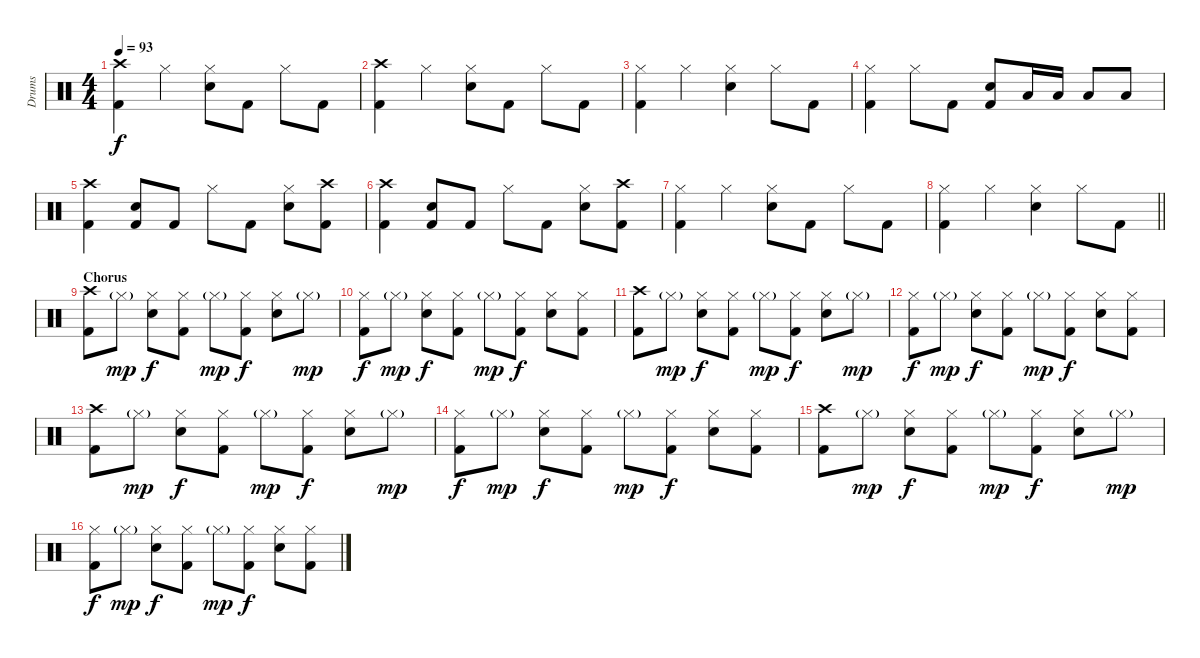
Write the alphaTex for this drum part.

\track ("Drums" "Drums") {instrument percussion}
\staff {score}
\articulation defaults
\ts (4 4)
\tempo 93
\clef neutral
\ks c
("Crash high (hit)" "Kick (hit) 2").4{dy f} "Hi-Hat (closed)".4 ("Hi-Hat (closed)" "Snare (hit) 2").8 "Kick (hit) 2".8 "Hi-Hat (closed)".8 "Kick (hit) 2".8 |
("Crash high (hit)" "Kick (hit) 2").4 "Hi-Hat (closed)".4 ("Hi-Hat (closed)" "Snare (hit) 2").8 "Kick (hit) 2".8 "Hi-Hat (closed)".8 "Kick (hit) 2".8 |
("Hi-Hat (closed)" "Kick (hit) 2").4 "Hi-Hat (closed)".4 ("Hi-Hat (closed)" "Snare (hit) 2").4 "Hi-Hat (closed)".8 "Kick (hit) 2".8 |
("Hi-Hat (closed)" "Kick (hit) 2").4 "Hi-Hat (closed)".8 "Kick (hit) 2".8 ("Kick (hit) 2" "Snare (hit) 2").8 "Low Tom (hit)".16 "Low Tom (hit)".16 "Low Tom (hit)".8 "Low Tom (hit)".8 |
("Crash high (hit)" "Kick (hit) 2").4 ("Kick (hit) 2" "Snare (hit) 2").8 "Kick (hit) 2".8 "Hi-Hat (closed)".8 "Kick (hit) 2".8 ("Hi-Hat (closed)" "Snare (hit) 2").8 ("Crash high (hit)" "Kick (hit) 2").8 |
("Crash high (hit)" "Kick (hit) 2").4 ("Kick (hit) 2" "Snare (hit) 2").8 "Kick (hit) 2".8 "Hi-Hat (closed)".8 "Kick (hit) 2".8 ("Hi-Hat (closed)" "Snare (hit) 2").8 ("Crash high (hit)" "Kick (hit) 2").8 |
("Hi-Hat (closed)" "Kick (hit) 2").4 "Hi-Hat (closed)".4 ("Hi-Hat (closed)" "Snare (hit) 2").8 "Kick (hit) 2".8 "Hi-Hat (closed)".8 "Kick (hit) 2".8 |
\barLineRight lightlight
("Hi-Hat (closed)" "Kick (hit) 2").4 "Hi-Hat (closed)".4 ("Hi-Hat (closed)" "Snare (hit) 2").4 "Hi-Hat (closed)".8 "Kick (hit) 2".8 |
\section ("" "Chorus")
("Crash high (hit)" "Kick (hit) 2").8 "Hi-Hat (closed)"{g}.8{dy mp} ("Hi-Hat (closed)" "Snare (hit) 2").8{dy f} ("Hi-Hat (closed)" "Kick (hit) 2").8 "Hi-Hat (closed)"{g}.8{dy mp} ("Hi-Hat (closed)" "Kick (hit) 2").8{dy f} ("Hi-Hat (closed)" "Snare (hit) 2").8 "Hi-Hat (closed)"{g}.8{dy mp} |
("Hi-Hat (closed)" "Kick (hit) 2").8{dy f} "Hi-Hat (closed)"{g}.8{dy mp} ("Hi-Hat (closed)" "Snare (hit) 2").8{dy f} ("Hi-Hat (closed)" "Kick (hit) 2").8 "Hi-Hat (closed)"{g}.8{dy mp} ("Hi-Hat (closed)" "Kick (hit) 2").8{dy f} ("Hi-Hat (closed)" "Snare (hit) 2").8 ("Hi-Hat (closed)" "Kick (hit) 2").8 |
("Crash high (hit)" "Kick (hit) 2").8 "Hi-Hat (closed)"{g}.8{dy mp} ("Hi-Hat (closed)" "Snare (hit) 2").8{dy f} ("Hi-Hat (closed)" "Kick (hit) 2").8 "Hi-Hat (closed)"{g}.8{dy mp} ("Hi-Hat (closed)" "Kick (hit) 2").8{dy f} ("Hi-Hat (closed)" "Snare (hit) 2").8 "Hi-Hat (closed)"{g}.8{dy mp} |
("Hi-Hat (closed)" "Kick (hit) 2").8{dy f} "Hi-Hat (closed)"{g}.8{dy mp} ("Hi-Hat (closed)" "Snare (hit) 2").8{dy f} ("Hi-Hat (closed)" "Kick (hit) 2").8 "Hi-Hat (closed)"{g}.8{dy mp} ("Hi-Hat (closed)" "Kick (hit) 2").8{dy f} ("Hi-Hat (closed)" "Snare (hit) 2").8 ("Hi-Hat (closed)" "Kick (hit) 2").8 |
("Crash high (hit)" "Kick (hit) 2").8 "Hi-Hat (closed)"{g}.8{dy mp} ("Hi-Hat (closed)" "Snare (hit) 2").8{dy f} ("Hi-Hat (closed)" "Kick (hit) 2").8 "Hi-Hat (closed)"{g}.8{dy mp} ("Hi-Hat (closed)" "Kick (hit) 2").8{dy f} ("Hi-Hat (closed)" "Snare (hit) 2").8 "Hi-Hat (closed)"{g}.8{dy mp} |
("Hi-Hat (closed)" "Kick (hit) 2").8{dy f} "Hi-Hat (closed)"{g}.8{dy mp} ("Hi-Hat (closed)" "Snare (hit) 2").8{dy f} ("Hi-Hat (closed)" "Kick (hit) 2").8 "Hi-Hat (closed)"{g}.8{dy mp} ("Hi-Hat (closed)" "Kick (hit) 2").8{dy f} ("Hi-Hat (closed)" "Snare (hit) 2").8 ("Hi-Hat (closed)" "Kick (hit) 2").8 |
("Crash high (hit)" "Kick (hit) 2").8 "Hi-Hat (closed)"{g}.8{dy mp} ("Hi-Hat (closed)" "Snare (hit) 2").8{dy f} ("Hi-Hat (closed)" "Kick (hit) 2").8 "Hi-Hat (closed)"{g}.8{dy mp} ("Hi-Hat (closed)" "Kick (hit) 2").8{dy f} ("Hi-Hat (closed)" "Snare (hit) 2").8 "Hi-Hat (closed)"{g}.8{dy mp} |
("Hi-Hat (closed)" "Kick (hit) 2").8{dy f} "Hi-Hat (closed)"{g}.8{dy mp} ("Hi-Hat (closed)" "Snare (hit) 2").8{dy f} ("Hi-Hat (closed)" "Kick (hit) 2").8 "Hi-Hat (closed)"{g}.8{dy mp} ("Hi-Hat (closed)" "Kick (hit) 2").8{dy f} ("Hi-Hat (closed)" "Snare (hit) 2").8 ("Hi-Hat (closed)" "Kick (hit) 2").8
